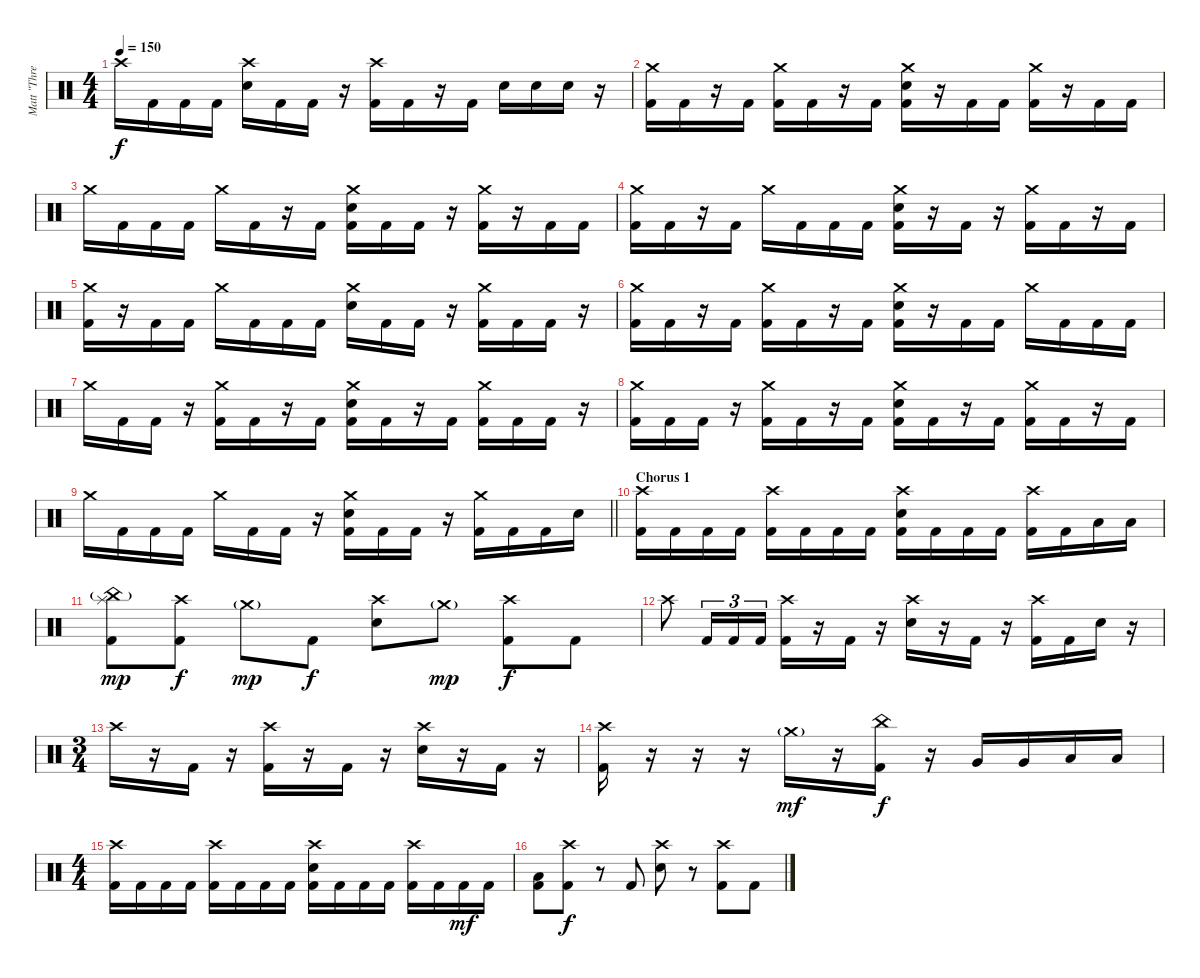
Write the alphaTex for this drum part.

\track ("Matt \"Three Cymbals/Swing\" Halpern" "Matt \"Thre") {instrument percussion}
\staff {score}
\articulation defaults
\ts (4 4)
\tempo 150
\clef neutral
\ks c "Crash high (hit)".16{dy f} "Kick (hit) 2".16 "Kick (hit) 2".16 "Kick (hit) 2".16
("Crash high (hit)" "Snare (hit) 2").16 "Kick (hit) 2".16 "Kick (hit) 2".16 r.16 ("Crash high (hit)" "Kick (hit) 2").16 "Kick (hit) 2".16 r.16 "Kick (hit) 2".16 "Snare (hit) 2".16 "Snare (hit) 2".16 "Snare (hit) 2".16 r.16 |
("Crash medium (hit)" "Kick (hit) 2").16 "Kick (hit) 2".16 r.16 "Kick (hit) 2".16 ("Crash medium (hit)" "Kick (hit) 2").16 "Kick (hit) 2".16 r.16 "Kick (hit) 2".16 ("Crash medium (hit)" "Snare (hit) 2" "Kick (hit) 2").16 r.16 "Kick (hit) 2".16 "Kick (hit) 2".16 ("Crash medium (hit)" "Kick (hit) 2").16 r.16 "Kick (hit) 2".16 "Kick (hit) 2".16 |
"Crash medium (hit)".16 "Kick (hit) 2".16 "Kick (hit) 2".16 "Kick (hit) 2".16 "Crash medium (hit)".16 "Kick (hit) 2".16 r.16 "Kick (hit) 2".16 ("Crash medium (hit)" "Snare (hit) 2" "Kick (hit) 2").16 "Kick (hit) 2".16 "Kick (hit) 2".16 r.16 ("Crash medium (hit)" "Kick (hit) 2").16 r.16 "Kick (hit) 2".16 "Kick (hit) 2".16 |
("Crash medium (hit)" "Kick (hit) 2").16 "Kick (hit) 2".16 r.16 "Kick (hit) 2".16 "Crash medium (hit)".16 "Kick (hit) 2".16 "Kick (hit) 2".16 "Kick (hit) 2".16 ("Crash medium (hit)" "Snare (hit) 2" "Kick (hit) 2").16 r.16 "Kick (hit) 2".16 r.16 ("Crash medium (hit)" "Kick (hit) 2").16 "Kick (hit) 2".16 r.16 "Kick (hit) 2".16 |
("Crash medium (hit)" "Kick (hit) 2").16 r.16 "Kick (hit) 2".16 "Kick (hit) 2".16 "Crash medium (hit)".16 "Kick (hit) 2".16 "Kick (hit) 2".16 "Kick (hit) 2".16 ("Crash medium (hit)" "Snare (hit) 2").16 "Kick (hit) 2".16 "Kick (hit) 2".16 r.16 ("Crash medium (hit)" "Kick (hit) 2").16 "Kick (hit) 2".16 "Kick (hit) 2".16 r.16 |
("Crash medium (hit)" "Kick (hit) 2").16 "Kick (hit) 2".16 r.16 "Kick (hit) 2".16 ("Crash medium (hit)" "Kick (hit) 2").16 "Kick (hit) 2".16 r.16 "Kick (hit) 2".16 ("Crash medium (hit)" "Snare (hit) 2" "Kick (hit) 2").16 r.16 "Kick (hit) 2".16 "Kick (hit) 2".16 "Crash medium (hit)".16 "Kick (hit) 2".16 "Kick (hit) 2".16 "Kick (hit) 2".16 |
"Crash medium (hit)".16 "Kick (hit) 2".16 "Kick (hit) 2".16 r.16 ("Crash medium (hit)" "Kick (hit) 2").16 "Kick (hit) 2".16 r.16 "Kick (hit) 2".16 ("Crash medium (hit)" "Snare (hit) 2" "Kick (hit) 2").16 "Kick (hit) 2".16 r.16 "Kick (hit) 2".16 ("Crash medium (hit)" "Kick (hit) 2").16 "Kick (hit) 2".16 "Kick (hit) 2".16 r.16 |
("Crash medium (hit)" "Kick (hit) 2").16 "Kick (hit) 2".16 "Kick (hit) 2".16 r.16 ("Crash medium (hit)" "Kick (hit) 2").16 "Kick (hit) 2".16 r.16 "Kick (hit) 2".16 ("Crash medium (hit)" "Snare (hit) 2" "Kick (hit) 2").16 "Kick (hit) 2".16 r.16 "Kick (hit) 2".16 ("Crash medium (hit)" "Kick (hit) 2").16 "Kick (hit) 2".16 r.16 "Kick (hit) 2".16 |
\barLineRight lightlight "Crash medium (hit)".16 "Kick (hit) 2".16 "Kick (hit) 2".16 "Kick (hit) 2".16 "Crash medium (hit)".16 "Kick (hit) 2".16 "Kick (hit) 2".16
r.16 ("Crash medium (hit)" "Snare (hit) 2" "Kick (hit) 2").16 "Kick (hit) 2".16 "Kick (hit) 2".16 r.16 ("Crash medium (hit)" "Kick (hit) 2").16 "Kick (hit) 2".16 "Kick (hit) 2".16 "Snare (hit) 2".16 |
\section ("" "Chorus 1")
("Crash high (hit)" "Kick (hit) 2").16 "Kick (hit) 2".16 "Kick (hit) 2".16 "Kick (hit) 2".16 ("Crash high (hit)" "Kick (hit) 2").16 "Kick (hit) 2".16 "Kick (hit) 2".16 "Kick (hit) 2".16 ("Crash high (hit)" "Snare (hit) 2" "Kick (hit) 2").16 "Kick (hit) 2".16 "Kick (hit) 2".16 "Kick (hit) 2".16 ("Crash high (hit)" "Kick (hit) 2").16 "Kick (hit) 2".16 "Low Floor Tom (hit)".16 "Low Floor Tom (hit)".16 |
("Splash (hit)" "China (hit)"{g} "Kick (hit) 2").8{dy mp} ("Crash high (hit)" "Kick (hit) 2").8{dy f} "Crash medium (hit)"{g}.8{dy mp} "Kick (hit) 2".8{dy f} ("Crash high (hit)" "Snare (hit) 2").8 "Crash medium (hit)"{g}.8{dy mp} ("Crash high (hit)" "Kick (hit) 2").8{dy f} "Kick (hit) 2".8 |
"Crash high (hit)".8 "Kick (hit) 2".16{tu (3 2)} "Kick (hit) 2".16{tu (3 2)} "Kick (hit) 2".16{tu (3 2)} ("Crash high (hit)" "Kick (hit) 2").16 r.16 "Kick (hit) 2".16 r.16 ("Crash high (hit)" "Snare (hit) 2").16 r.16 "Kick (hit) 2".16 r.16 ("Crash high (hit)" "Kick (hit) 2").16 "Kick (hit) 2".16 "Snare (hit) 2".16 r.16 |
\ts (3 4)
"Crash high (hit)".16 r.16 "Kick (hit) 2".16 r.16 ("Crash high (hit)" "Kick (hit) 2").16 r.16 "Kick (hit) 2".16 r.16 ("Crash high (hit)" "Snare (hit) 2").16 r.16 "Kick (hit) 2".16 r.16 |
("Crash high (hit)" "Kick (hit) 2").16 r.16 r.16 r.16 "Crash medium (hit)"{g}.16{dy mf} r.16 ("China (hit)" "Kick (hit) 2").16{dy f} r.16 "Very Low Tom (hit)".16 "Very Low Tom (hit)".16 "Low Floor Tom (hit)".16 "Low Floor Tom (hit)".16 |
\ts (4 4)
("Crash high (hit)" "Kick (hit) 2").16 "Kick (hit) 2".16 "Kick (hit) 2".16 "Kick (hit) 2".16 ("Crash high (hit)" "Kick (hit) 2").16 "Kick (hit) 2".16 "Kick (hit) 2".16 "Kick (hit) 2".16 ("Crash high (hit)" "Snare (hit) 2" "Kick (hit) 2").16 "Kick (hit) 2".16 "Kick (hit) 2".16 "Kick (hit) 2".16 ("Crash high (hit)" "Kick (hit) 2").16 "Kick (hit) 2".16 "Kick (hit) 2".16{dy mf} "Kick (hit) 2".16 |
("Low Floor Tom (hit)" "Kick (hit) 2").8 ("Crash high (hit)" "Kick (hit) 2").8{dy f} r.8 "Kick (hit) 2".8 ("Crash high (hit)" "Snare (hit) 2").8 r.8 ("Crash high (hit)" "Kick (hit) 2").8 "Kick (hit) 2".8
